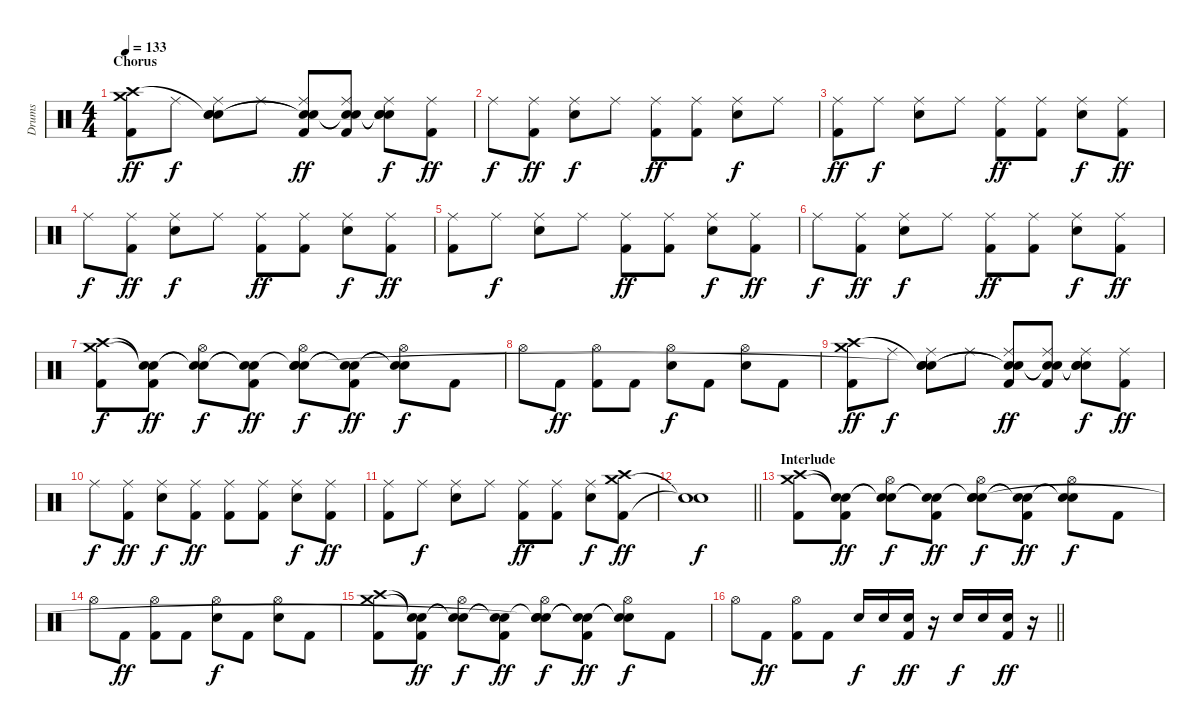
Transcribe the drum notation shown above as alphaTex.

\track ("Drums" "Drums") {instrument percussion}
\staff {score}
\articulation defaults
\ts (4 4)
\section ("" "Chorus")
\tempo 133
\clef neutral
\ks c
("Kick (hit) 2" "Crash medium (hit)" "Crash high (hit)").8{dy ff} "Ride (middle)".8{dy f} ("Ride (middle)" "Snare (hit) 2" "Snare (hit)"{t} "Snare (hit)").8 "Ride (middle)".8 ("Ride (middle)" "Kick (hit) 2" "Snare (hit)"{t} "Snare (hit)"{t}).8{dy ff} ("Ride (middle)" "Kick (hit) 2" "Snare (hit)"{t} "Snare (hit)"{t}).8 ("Ride (middle)" "Snare (hit) 2" "Snare (hit)"{t} "Snare (hit)"{t}).8{dy f} ("Ride (middle)" "Kick (hit) 2").8{dy ff} |
"Ride (middle)".8{dy f} ("Ride (middle)" "Kick (hit) 2").8{dy ff} ("Ride (middle)" "Snare (hit) 2").8{dy f} "Ride (middle)".8 ("Ride (middle)" "Kick (hit) 2").8{dy ff} ("Ride (middle)" "Kick (hit) 2").8 ("Ride (middle)" "Snare (hit) 2").8{dy f} "Ride (middle)".8 |
("Ride (middle)" "Kick (hit) 2").8{dy ff} "Ride (middle)".8{dy f} ("Ride (middle)" "Snare (hit) 2").8 "Ride (middle)".8 ("Ride (middle)" "Kick (hit) 2").8{dy ff} ("Ride (middle)" "Kick (hit) 2").8 ("Ride (middle)" "Snare (hit) 2").8{dy f} ("Ride (middle)" "Kick (hit) 2").8{dy ff} |
"Ride (middle)".8{dy f} ("Ride (middle)" "Kick (hit) 2").8{dy ff} ("Ride (middle)" "Snare (hit) 2").8{dy f} "Ride (middle)".8 ("Ride (middle)" "Kick (hit) 2").8{dy ff} ("Ride (middle)" "Kick (hit) 2").8 ("Ride (middle)" "Snare (hit) 2").8{dy f} ("Ride (middle)" "Kick (hit) 2").8{dy ff} |
("Ride (middle)" "Kick (hit) 2").8 "Ride (middle)".8{dy f} ("Ride (middle)" "Snare (hit) 2").8 "Ride (middle)".8 ("Ride (middle)" "Kick (hit) 2").8{dy ff} ("Ride (middle)" "Kick (hit) 2").8 ("Ride (middle)" "Snare (hit) 2").8{dy f} ("Ride (middle)" "Kick (hit) 2").8{dy ff} |
"Ride (middle)".8{dy f} ("Ride (middle)" "Kick (hit) 2").8{dy ff} ("Ride (middle)" "Snare (hit) 2").8{dy f} "Ride (middle)".8 ("Ride (middle)" "Kick (hit) 2").8{dy ff} ("Ride (middle)" "Kick (hit) 2").8 ("Ride (middle)" "Snare (hit) 2").8{dy f} ("Ride (middle)" "Kick (hit) 2").8{dy ff} |
("Kick (hit) 2" "Crash high (hit)" "Crash medium (hit)").8{dy f} ("Kick (hit) 2" "Snare (hit)"{t} "Snare (hit)"{t}).8{dy ff} ("Hi-Hat (open)" "Snare (hit)"{t} "Snare (hit)"{t}).8{dy f} ("Kick (hit) 2" "Snare (hit)"{t} "Snare (hit)"{t}).8{dy ff} ("Hi-Hat (open)" "Snare (hit) 2" "Snare (hit)"{t} "Snare (hit)").8{dy f} ("Kick (hit) 2" "Snare (hit)"{t} "Snare (hit)"{t}).8{dy ff} ("Hi-Hat (open)" "Snare (hit)"{t} "Snare (hit)"{t}).8{dy f} "Kick (hit) 2".8 |
"Hi-Hat (open)".8 "Kick (hit) 2".8{dy ff} ("Hi-Hat (open)" "Kick (hit) 2").8 "Kick (hit) 2".8 ("Hi-Hat (open)" "Snare (hit) 2").8{dy f} "Kick (hit) 2".8 ("Hi-Hat (open)" "Snare (hit) 2").8 "Kick (hit) 2".8 |
("Kick (hit) 2" "Crash medium (hit)" "Crash high (hit)").8{dy ff} "Ride (middle)".8{dy f} ("Ride (middle)" "Snare (hit) 2" "Snare (hit)"{t} "Snare (hit)"{t}).8 "Ride (middle)".8 ("Ride (middle)" "Kick (hit) 2" "Snare (hit)"{t} "Snare (hit)"{t}).8{dy ff} ("Ride (middle)" "Kick (hit) 2" "Snare (hit)"{t} "Snare (hit)"{t}).8 ("Ride (middle)" "Snare (hit) 2" "Snare (hit)"{t} "Snare (hit)"{t}).8{dy f} ("Ride (middle)" "Kick (hit) 2").8{dy ff} |
"Ride (middle)".8{dy f} ("Ride (middle)" "Kick (hit) 2").8{dy ff} ("Ride (middle)" "Snare (hit) 2").8{dy f} ("Ride (middle)" "Kick (hit) 2").8{dy ff} ("Ride (middle)" "Kick (hit) 2").8 ("Ride (middle)" "Kick (hit) 2").8 ("Ride (middle)" "Snare (hit) 2").8{dy f} ("Ride (middle)" "Kick (hit) 2").8{dy ff} |
("Ride (middle)" "Kick (hit) 2").8 "Ride (middle)".8{dy f} ("Ride (middle)" "Snare (hit) 2").8 "Ride (middle)".8 ("Ride (middle)" "Kick (hit) 2").8{dy ff} ("Ride (middle)" "Kick (hit) 2").8 ("Ride (middle)" "Snare (hit) 2").8{dy f} ("Kick (hit) 2" "Crash medium (hit)" "Crash high (hit)").8{dy ff} |
\barLineRight lightlight
("Snare (hit)"{t} "Snare (hit)"{t}).1{dy f} |
\section ("" "Interlude")
("Kick (hit) 2" "Crash high (hit)" "Crash medium (hit)").8 ("Kick (hit) 2" "Snare (hit)"{t} "Snare (hit)"{t}).8{dy ff} ("Hi-Hat (open)" "Snare (hit)"{t} "Snare (hit)"{t}).8{dy f} ("Kick (hit) 2" "Snare (hit)"{t} "Snare (hit)"{t}).8{dy ff} ("Hi-Hat (open)" "Snare (hit) 2" "Snare (hit)"{t} "Snare (hit)").8{dy f} ("Kick (hit) 2" "Snare (hit)"{t} "Snare (hit)"{t}).8{dy ff} ("Hi-Hat (open)" "Snare (hit)"{t} "Snare (hit)"{t}).8{dy f} "Kick (hit) 2".8 |
"Hi-Hat (open)".8 "Kick (hit) 2".8{dy ff} ("Hi-Hat (open)" "Kick (hit) 2").8 "Kick (hit) 2".8 ("Hi-Hat (open)" "Snare (hit) 2").8{dy f} "Kick (hit) 2".8 ("Hi-Hat (open)" "Snare (hit) 2").8 "Kick (hit) 2".8 |
("Kick (hit) 2" "Crash high (hit)" "Crash medium (hit)").8 ("Kick (hit) 2" "Snare (hit)"{t} "Snare (hit)"{t}).8{dy ff} ("Hi-Hat (open)" "Snare (hit)"{t} "Snare (hit)"{t}).8{dy f} ("Kick (hit) 2" "Snare (hit)"{t} "Snare (hit)"{t}).8{dy ff} ("Hi-Hat (open)" "Snare (hit) 2" "Snare (hit)"{t} "Snare (hit)"{t}).8{dy f} ("Kick (hit) 2" "Snare (hit)"{t} "Snare (hit)"{t}).8{dy ff} ("Hi-Hat (open)" "Snare (hit)"{t} "Snare (hit)"{t}).8{dy f} "Kick (hit) 2".8 |
\barLineRight lightlight "Hi-Hat (open)".8 "Kick (hit) 2".8{dy ff}
("Hi-Hat (open)" "Kick (hit) 2").8 "Kick (hit) 2".8 "Snare (hit) 2".16{dy f} "Snare (hit) 2".16 ("Snare (hit) 2" "Kick (hit) 2").16{dy ff} r.16 "Snare (hit) 2".16{dy f} "Snare (hit) 2".16 ("Snare (hit) 2" "Kick (hit) 2").16{dy ff} r.16
